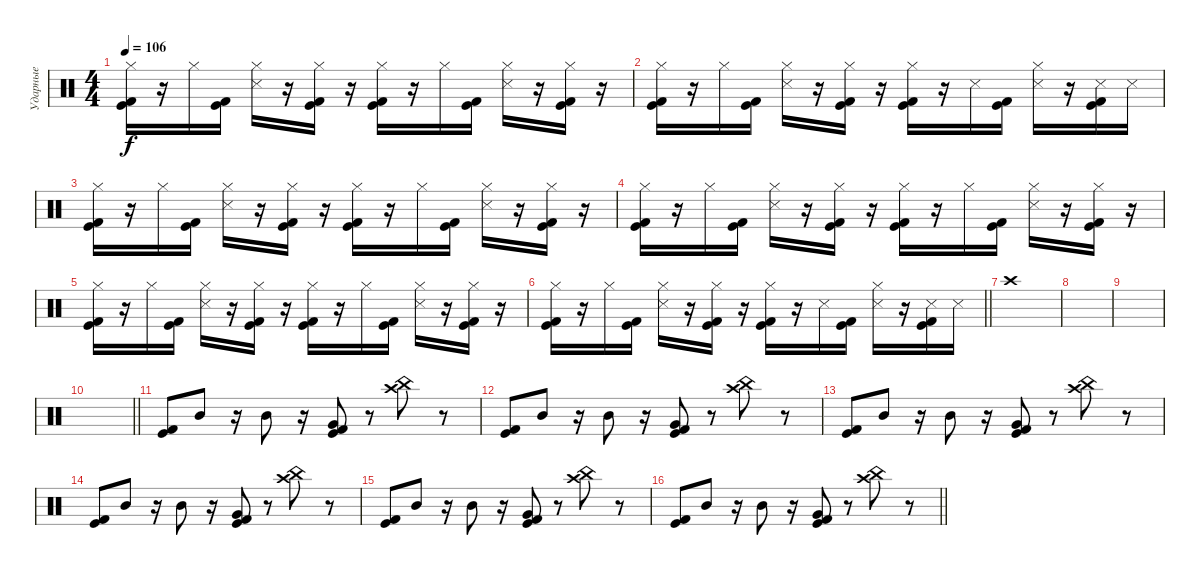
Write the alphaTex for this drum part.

\track ("Ударные" "Ударные") {instrument percussion}
\staff {score}
\articulation defaults
\ts (4 4)
\tempo 106
\clef neutral
\ks c
("Hi-Hat (closed)" "Kick (hit) 2" "Kick (hit)").16{dy f} r.16 "Hi-Hat (closed)".16 ("Kick (hit) 2" "Kick (hit)").16 ("Hi-Hat (closed)" "Snare (side stick) 3").16 r.16 ("Hi-Hat (closed)" "Kick (hit) 2" "Kick (hit)").16 r.16 ("Hi-Hat (closed)" "Kick (hit) 2" "Kick (hit)").16 r.16 "Hi-Hat (closed)".16 ("Kick (hit) 2" "Kick (hit)").16 ("Hi-Hat (closed)" "Snare (side stick) 3").16 r.16 ("Hi-Hat (closed)" "Kick (hit) 2" "Kick (hit)").16 r.16 |
("Hi-Hat (closed)" "Kick (hit) 2" "Kick (hit)").16 r.16 "Hi-Hat (closed)".16 ("Kick (hit) 2" "Kick (hit)").16 ("Hi-Hat (closed)" "Snare (side stick) 3").16 r.16 ("Hi-Hat (closed)" "Kick (hit) 2" "Kick (hit)").16 r.16 ("Hi-Hat (closed)" "Kick (hit) 2" "Kick (hit)").16 r.16 "Snare (side stick) 3".16 ("Kick (hit) 2" "Kick (hit)").16 ("Hi-Hat (closed)" "Snare (side stick) 3").16 r.16 ("Snare (side stick) 3" "Kick (hit) 2" "Kick (hit)").16 "Snare (side stick) 3".16 |
("Hi-Hat (closed)" "Kick (hit) 2" "Kick (hit)").16 r.16 "Hi-Hat (closed)".16 ("Kick (hit) 2" "Kick (hit)").16 ("Hi-Hat (closed)" "Snare (side stick) 3").16 r.16 ("Hi-Hat (closed)" "Kick (hit) 2" "Kick (hit)").16 r.16 ("Hi-Hat (closed)" "Kick (hit) 2" "Kick (hit)").16 r.16 "Hi-Hat (closed)".16 ("Kick (hit) 2" "Kick (hit)").16 ("Hi-Hat (closed)" "Snare (side stick) 3").16 r.16 ("Hi-Hat (closed)" "Kick (hit) 2" "Kick (hit)").16 r.16 |
("Hi-Hat (closed)" "Kick (hit) 2" "Kick (hit)").16 r.16 "Hi-Hat (closed)".16 ("Kick (hit) 2" "Kick (hit)").16 ("Hi-Hat (closed)" "Snare (side stick) 3").16 r.16 ("Hi-Hat (closed)" "Kick (hit) 2" "Kick (hit)").16 r.16 ("Hi-Hat (closed)" "Kick (hit) 2" "Kick (hit)").16 r.16 "Hi-Hat (closed)".16 ("Kick (hit) 2" "Kick (hit)").16 ("Hi-Hat (closed)" "Snare (side stick) 3").16 r.16 ("Hi-Hat (closed)" "Kick (hit) 2" "Kick (hit)").16 r.16 |
("Hi-Hat (closed)" "Kick (hit) 2" "Kick (hit)").16 r.16 "Hi-Hat (closed)".16 ("Kick (hit) 2" "Kick (hit)").16 ("Hi-Hat (closed)" "Snare (side stick) 3").16 r.16 ("Hi-Hat (closed)" "Kick (hit) 2" "Kick (hit)").16 r.16 ("Hi-Hat (closed)" "Kick (hit) 2" "Kick (hit)").16 r.16 "Hi-Hat (closed)".16 ("Kick (hit) 2" "Kick (hit)").16 ("Hi-Hat (closed)" "Snare (side stick) 3").16 r.16 ("Hi-Hat (closed)" "Kick (hit) 2" "Kick (hit)").16 r.16 |
\barLineRight lightlight
("Hi-Hat (closed)" "Kick (hit) 2" "Kick (hit)").16 r.16 "Hi-Hat (closed)".16 ("Kick (hit) 2" "Kick (hit)").16 ("Hi-Hat (closed)" "Snare (side stick) 3").16 r.16 ("Hi-Hat (closed)" "Kick (hit) 2" "Kick (hit)").16 r.16 ("Hi-Hat (closed)" "Kick (hit) 2" "Kick (hit)").16 r.16 "Snare (side stick) 3".16 ("Kick (hit) 2" "Kick (hit)").16 ("Hi-Hat (closed)" "Snare (side stick) 3").16 r.16 ("Snare (side stick) 3" "Kick (hit) 2" "Kick (hit)").16 "Snare (side stick) 3".16 |
"Crash high (hit)".1 |
|
|
\barLineRight lightlight
|
("Kick (hit) 2" "Kick (hit)").8 "Mid Tom (hit)".8 r.16 "Mid Tom (hit)".8 r.16 ("Very Low Tom (hit)" "Kick (hit) 2" "Kick (hit)").8 r.8 ("Crash high (hit)" "China (hit)").8 r.8 |
("Kick (hit) 2" "Kick (hit)").8 "Mid Tom (hit)".8 r.16 "Mid Tom (hit)".8 r.16 ("Very Low Tom (hit)" "Kick (hit) 2" "Kick (hit)").8 r.8 ("Crash high (hit)" "China (hit)").8 r.8 |
("Kick (hit) 2" "Kick (hit)").8 "Mid Tom (hit)".8 r.16 "Mid Tom (hit)".8 r.16 ("Very Low Tom (hit)" "Kick (hit) 2" "Kick (hit)").8 r.8 ("Crash high (hit)" "China (hit)").8 r.8 |
("Kick (hit) 2" "Kick (hit)").8 "Mid Tom (hit)".8 r.16 "Mid Tom (hit)".8 r.16 ("Very Low Tom (hit)" "Kick (hit) 2" "Kick (hit)").8 r.8 ("Crash high (hit)" "China (hit)").8 r.8 |
("Kick (hit) 2" "Kick (hit)").8 "Mid Tom (hit)".8 r.16 "Mid Tom (hit)".8 r.16 ("Very Low Tom (hit)" "Kick (hit) 2" "Kick (hit)").8 r.8 ("Crash high (hit)" "China (hit)").8 r.8 |
\barLineRight lightlight
("Kick (hit) 2" "Kick (hit)").8 "Mid Tom (hit)".8 r.16 "Mid Tom (hit)".8 r.16 ("Very Low Tom (hit)" "Kick (hit) 2" "Kick (hit)").8 r.8 ("Crash high (hit)" "China (hit)").8 r.8
